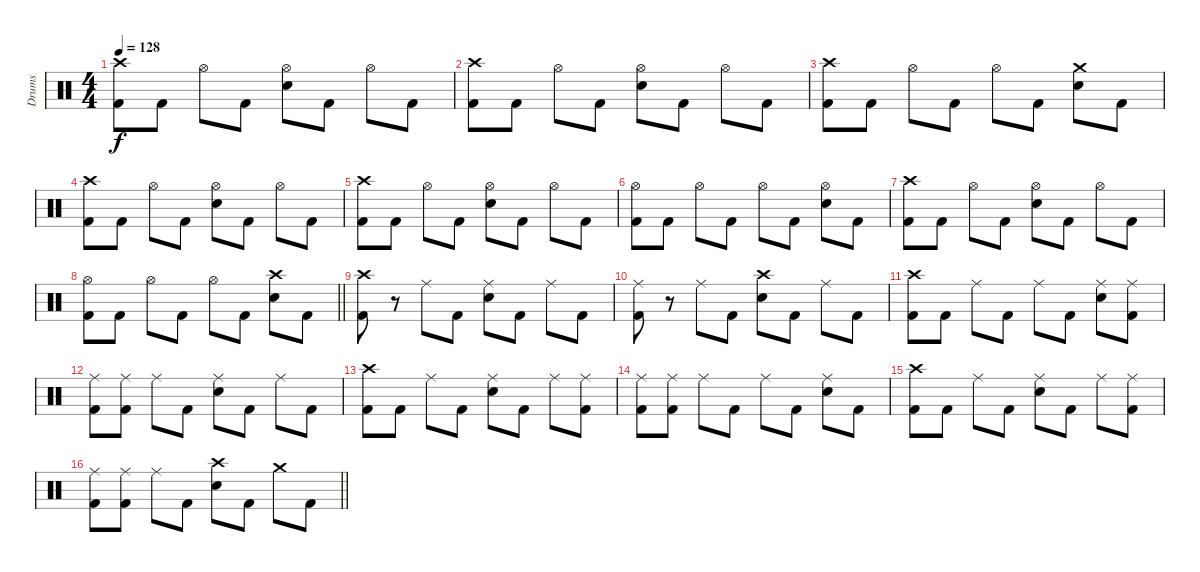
\track ("Drums" "Drums") {instrument percussion}
\staff {score}
\articulation defaults
\ts (4 4)
\tempo 128
\clef neutral
\ks c
("Crash high (hit)" "Kick (hit) 2").8{dy f} "Kick (hit) 2".8 "Hi-Hat (open)".8 "Kick (hit) 2".8 ("Hi-Hat (open)" "Electric Snare (hit)").8 "Kick (hit) 2".8 "Hi-Hat (open)".8 "Kick (hit) 2".8 |
("Crash high (hit)" "Kick (hit) 2").8 "Kick (hit) 2".8 "Hi-Hat (open)".8 "Kick (hit) 2".8 ("Hi-Hat (open)" "Electric Snare (hit)").8 "Kick (hit) 2".8 "Hi-Hat (open)".8 "Kick (hit) 2".8 |
("Crash high (hit)" "Kick (hit) 2").8 "Kick (hit) 2".8 "Hi-Hat (open)".8 "Kick (hit) 2".8 "Hi-Hat (open)".8 "Kick (hit) 2".8 ("Crash medium (hit)" "Electric Snare (hit)").8 "Kick (hit) 2".8 |
("Crash high (hit)" "Kick (hit) 2").8 "Kick (hit) 2".8 "Hi-Hat (open)".8 "Kick (hit) 2".8 ("Hi-Hat (open)" "Electric Snare (hit)").8 "Kick (hit) 2".8 "Hi-Hat (open)".8 "Kick (hit) 2".8 |
("Crash high (hit)" "Kick (hit) 2").8 "Kick (hit) 2".8 "Hi-Hat (open)".8 "Kick (hit) 2".8 ("Hi-Hat (open)" "Electric Snare (hit)").8 "Kick (hit) 2".8 "Hi-Hat (open)".8 "Kick (hit) 2".8 |
("Hi-Hat (open)" "Kick (hit) 2").8 "Kick (hit) 2".8 "Hi-Hat (open)".8 "Kick (hit) 2".8 "Hi-Hat (open)".8 "Kick (hit) 2".8 ("Hi-Hat (open)" "Electric Snare (hit)").8 "Kick (hit) 2".8 |
("Crash high (hit)" "Kick (hit) 2").8 "Kick (hit) 2".8 "Hi-Hat (open)".8 "Kick (hit) 2".8 ("Hi-Hat (open)" "Electric Snare (hit)").8 "Kick (hit) 2".8 "Hi-Hat (open)".8 "Kick (hit) 2".8 |
\barLineRight lightlight
("Hi-Hat (open)" "Kick (hit) 2").8 "Kick (hit) 2".8 "Hi-Hat (open)".8 "Kick (hit) 2".8 "Hi-Hat (open)".8 "Kick (hit) 2".8 ("Crash high (hit)" "Electric Snare (hit)").8 "Kick (hit) 2".8 |
("Crash high (hit)" "Kick (hit) 2").8 r.8 "Ride (middle)".8 "Kick (hit) 2".8 ("Ride (middle)" "Electric Snare (hit)").8 "Kick (hit) 2".8 "Ride (middle)".8 "Kick (hit) 2".8 |
("Ride (middle)" "Kick (hit) 2").8 r.8 "Ride (middle)".8 "Kick (hit) 2".8 ("Crash high (hit)" "Electric Snare (hit)").8 "Kick (hit) 2".8 "Ride (middle)".8 "Kick (hit) 2".8 |
("Crash high (hit)" "Kick (hit) 2").8 "Kick (hit) 2".8 "Ride (middle)".8 "Kick (hit) 2".8 "Ride (middle)".8 "Kick (hit) 2".8 ("Ride (middle)" "Electric Snare (hit)").8 ("Ride (middle)" "Kick (hit) 2").8 |
("Ride (middle)" "Kick (hit) 2").8 ("Ride (middle)" "Kick (hit) 2").8 "Ride (middle)".8 "Kick (hit) 2".8 ("Ride (middle)" "Electric Snare (hit)").8 "Kick (hit) 2".8 "Ride (middle)".8 "Kick (hit) 2".8 |
("Crash high (hit)" "Kick (hit) 2").8 "Kick (hit) 2".8 "Ride (middle)".8 "Kick (hit) 2".8 ("Ride (middle)" "Electric Snare (hit)").8 "Kick (hit) 2".8 "Ride (middle)".8 ("Ride (middle)" "Kick (hit) 2").8 |
("Ride (middle)" "Kick (hit) 2").8 ("Ride (middle)" "Kick (hit) 2").8 "Ride (middle)".8 "Kick (hit) 2".8 "Ride (middle)".8 "Kick (hit) 2".8 ("Ride (middle)" "Electric Snare (hit)").8 "Kick (hit) 2".8 |
("Crash high (hit)" "Kick (hit) 2").8 "Kick (hit) 2".8 "Ride (middle)".8 "Kick (hit) 2".8 ("Ride (middle)" "Electric Snare (hit)").8 "Kick (hit) 2".8 "Ride (middle)".8 ("Ride (middle)" "Kick (hit) 2").8 |
\barLineRight lightlight
("Ride (middle)" "Kick (hit) 2").8 ("Ride (middle)" "Kick (hit) 2").8 "Ride (middle)".8 "Kick (hit) 2".8 ("Crash high (hit)" "Electric Snare (hit)").8 "Kick (hit) 2".8 "Crash medium (hit)".8 "Kick (hit) 2".8
